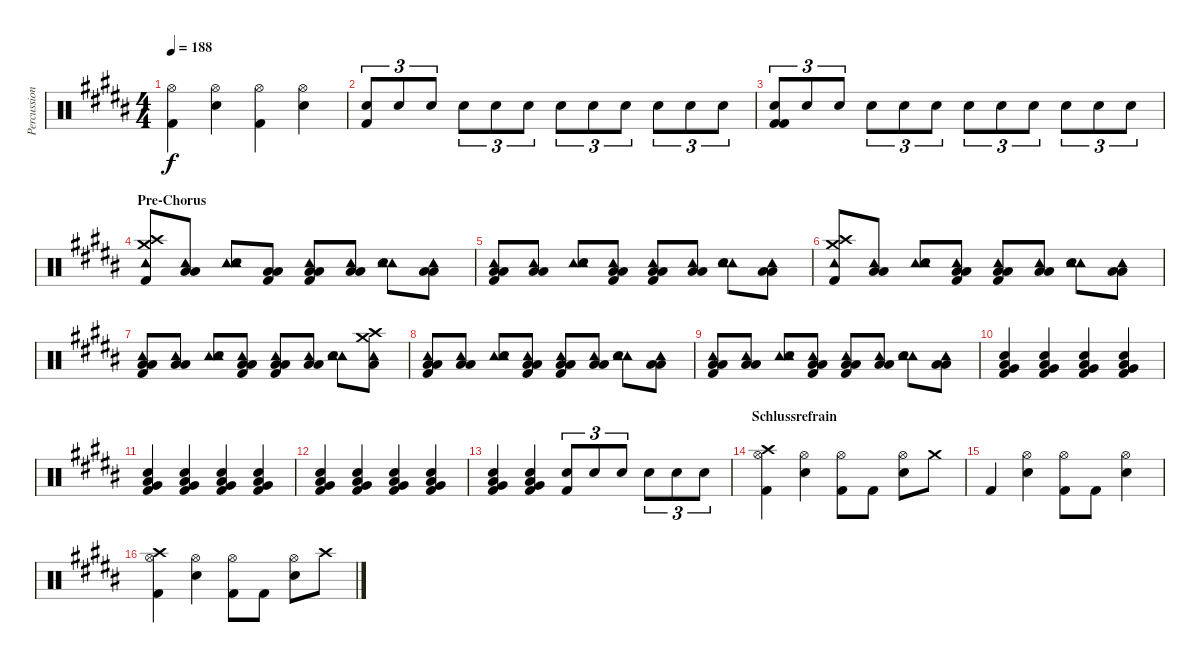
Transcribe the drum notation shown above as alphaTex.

\track ("Percussion" "Percussion") {instrument percussion}
\staff {score}
\articulation defaults
\ts (4 4)
\tempo 188
\clef neutral
\ks b
("Hi-Hat (open)" "Kick (hit) 2").4{dy f} ("Hi-Hat (open)" "Electric Snare (hit)").4 ("Hi-Hat (open)" "Kick (hit) 2").4 ("Hi-Hat (open)" "Electric Snare (hit)").4 |
("Electric Snare (hit)" "Kick (hit) 2").8{tu (3 2)} "Electric Snare (hit)".8{tu (3 2)} "Electric Snare (hit)".8{tu (3 2)} "Electric Snare (hit)".8{tu (3 2)} "Electric Snare (hit)".8{tu (3 2)} "Electric Snare (hit)".8{tu (3 2)} "Electric Snare (hit)".8{tu (3 2)} "Electric Snare (hit)".8{tu (3 2)} "Electric Snare (hit)".8{tu (3 2)} "Electric Snare (hit)".8{tu (3 2)} "Electric Snare (hit)".8{tu (3 2)} "Electric Snare (hit)".8{tu (3 2)} |
("Electric Snare (hit)" "Kick (hit) 2" "Kick (hit) 2").8{tu (3 2)} "Electric Snare (hit)".8{tu (3 2)} "Electric Snare (hit)".8{tu (3 2)} "Electric Snare (hit)".8{tu (3 2)} "Electric Snare (hit)".8{tu (3 2)} "Electric Snare (hit)".8{tu (3 2)} "Electric Snare (hit)".8{tu (3 2)} "Electric Snare (hit)".8{tu (3 2)} "Electric Snare (hit)".8{tu (3 2)} "Electric Snare (hit)".8{tu (3 2)} "Electric Snare (hit)".8{tu (3 2)} "Electric Snare (hit)".8{tu (3 2)} |
\section ("" "Pre-Chorus")
("Crash high (hit)" "Crash medium (hit)" "Tambourine (hit)" "Kick (hit) 2").8 ("Low Tom (hit)" "Low Floor Tom (hit)" "Tambourine (hit)").8 ("Tambourine (hit)" "Electric Snare (hit)" "Tambourine (hit)").8 ("Low Tom (hit)" "Low Floor Tom (hit)" "Kick (hit) 2").8 ("Low Tom (hit)" "Low Floor Tom (hit)" "Tambourine (hit)" "Kick (hit) 2").8 ("Low Tom (hit)" "Low Floor Tom (hit)" "Tambourine (hit)").8 ("Tambourine (hit)" "Electric Snare (hit)" "Tambourine (hit)").8 ("Low Tom (hit)" "Low Floor Tom (hit)" "Tambourine (hit)").8 |
("Low Tom (hit)" "Low Floor Tom (hit)" "Tambourine (hit)" "Kick (hit) 2").8 ("Low Tom (hit)" "Low Floor Tom (hit)" "Tambourine (hit)").8 ("Tambourine (hit)" "Electric Snare (hit)" "Tambourine (hit)").8 ("Low Tom (hit)" "Low Floor Tom (hit)" "Tambourine (hit)" "Kick (hit) 2").8 ("Low Tom (hit)" "Low Floor Tom (hit)" "Tambourine (hit)" "Kick (hit) 2").8 ("Low Tom (hit)" "Low Floor Tom (hit)" "Tambourine (hit)").8 ("Tambourine (hit)" "Electric Snare (hit)" "Tambourine (hit)").8 ("Low Tom (hit)" "Low Floor Tom (hit)" "Tambourine (hit)").8 |
("Crash high (hit)" "Crash medium (hit)" "Tambourine (hit)" "Kick (hit) 2").8 ("Low Tom (hit)" "Low Floor Tom (hit)" "Tambourine (hit)").8 ("Tambourine (hit)" "Electric Snare (hit)" "Tambourine (hit)").8 ("Low Tom (hit)" "Low Floor Tom (hit)" "Tambourine (hit)" "Kick (hit) 2").8 ("Low Tom (hit)" "Low Floor Tom (hit)" "Tambourine (hit)" "Kick (hit) 2").8 ("Low Tom (hit)" "Low Floor Tom (hit)" "Tambourine (hit)").8 ("Tambourine (hit)" "Electric Snare (hit)" "Tambourine (hit)").8 ("Low Tom (hit)" "Low Floor Tom (hit)" "Tambourine (hit)").8 |
("Low Tom (hit)" "Low Floor Tom (hit)" "Tambourine (hit)" "Kick (hit) 2").8 ("Low Tom (hit)" "Low Floor Tom (hit)" "Tambourine (hit)").8 ("Tambourine (hit)" "Electric Snare (hit)" "Tambourine (hit)").8 ("Low Tom (hit)" "Low Floor Tom (hit)" "Tambourine (hit)" "Kick (hit) 2").8 ("Low Tom (hit)" "Low Floor Tom (hit)" "Tambourine (hit)" "Kick (hit) 2").8 ("Low Tom (hit)" "Low Floor Tom (hit)" "Tambourine (hit)").8 ("Tambourine (hit)" "Electric Snare (hit)" "Tambourine (hit)").8 ("Crash high (hit)" "Crash medium (hit)" "Low Floor Tom (hit)" "Tambourine (hit)").8 |
("Low Tom (hit)" "Low Floor Tom (hit)" "Tambourine (hit)" "Kick (hit) 2").8 ("Low Tom (hit)" "Low Floor Tom (hit)" "Tambourine (hit)").8 ("Tambourine (hit)" "Electric Snare (hit)" "Tambourine (hit)").8 ("Low Tom (hit)" "Low Floor Tom (hit)" "Tambourine (hit)" "Kick (hit) 2").8 ("Low Tom (hit)" "Low Floor Tom (hit)" "Tambourine (hit)" "Kick (hit) 2").8 ("Low Tom (hit)" "Low Floor Tom (hit)" "Tambourine (hit)").8 ("Tambourine (hit)" "Electric Snare (hit)" "Tambourine (hit)").8 ("Low Tom (hit)" "Low Floor Tom (hit)" "Tambourine (hit)").8 |
("Low Tom (hit)" "Low Floor Tom (hit)" "Tambourine (hit)" "Kick (hit) 2").8 ("Low Tom (hit)" "Low Floor Tom (hit)" "Tambourine (hit)").8 ("Tambourine (hit)" "Electric Snare (hit)" "Tambourine (hit)").8 ("Low Tom (hit)" "Low Floor Tom (hit)" "Tambourine (hit)" "Kick (hit) 2").8 ("Low Tom (hit)" "Low Floor Tom (hit)" "Tambourine (hit)" "Kick (hit) 2").8 ("Low Tom (hit)" "Low Floor Tom (hit)" "Tambourine (hit)").8 ("Tambourine (hit)" "Electric Snare (hit)" "Tambourine (hit)").8 ("Low Tom (hit)" "Low Floor Tom (hit)" "Tambourine (hit)").8 |
("Low Tom (hit)" "Very Low Tom (hit)" "Electric Snare (hit)" "Kick (hit) 2").4 ("Low Tom (hit)" "Very Low Tom (hit)" "Electric Snare (hit)" "Kick (hit) 2").4 ("Low Tom (hit)" "Very Low Tom (hit)" "Electric Snare (hit)" "Kick (hit) 2").4 ("Low Tom (hit)" "Very Low Tom (hit)" "Electric Snare (hit)" "Kick (hit) 2").4 |
("Low Tom (hit)" "Very Low Tom (hit)" "Electric Snare (hit)" "Kick (hit) 2").4 ("Low Tom (hit)" "Very Low Tom (hit)" "Electric Snare (hit)" "Kick (hit) 2").4 ("Low Tom (hit)" "Very Low Tom (hit)" "Electric Snare (hit)" "Kick (hit) 2").4 ("Low Tom (hit)" "Very Low Tom (hit)" "Electric Snare (hit)" "Kick (hit) 2").4 |
("Low Tom (hit)" "Very Low Tom (hit)" "Electric Snare (hit)" "Kick (hit) 2").4 ("Low Tom (hit)" "Very Low Tom (hit)" "Electric Snare (hit)" "Kick (hit) 2").4 ("Low Tom (hit)" "Very Low Tom (hit)" "Electric Snare (hit)" "Kick (hit) 2").4 ("Low Tom (hit)" "Very Low Tom (hit)" "Electric Snare (hit)" "Kick (hit) 2").4 |
("Low Tom (hit)" "Very Low Tom (hit)" "Electric Snare (hit)" "Kick (hit) 2").4 ("Low Tom (hit)" "Very Low Tom (hit)" "Electric Snare (hit)" "Kick (hit) 2").4 ("Electric Snare (hit)" "Kick (hit) 2").8{tu (3 2)} "Electric Snare (hit)".8{tu (3 2)} "Electric Snare (hit)".8{tu (3 2)} "Electric Snare (hit)".8{tu (3 2)} "Electric Snare (hit)".8{tu (3 2)} "Electric Snare (hit)".8{tu (3 2)} |
\section ("" "Schlussrefrain")
("Crash high (hit)" "Hi-Hat (open)" "Kick (hit) 2").4 ("Hi-Hat (open)" "Electric Snare (hit)").4 ("Hi-Hat (open)" "Kick (hit) 2").8 "Kick (hit) 2".8 ("Hi-Hat (open)" "Electric Snare (hit)").8 "Crash medium (hit)".8 |
"Kick (hit) 2".4 ("Hi-Hat (open)" "Electric Snare (hit)").4 ("Hi-Hat (open)" "Kick (hit) 2").8 "Kick (hit) 2".8 ("Hi-Hat (open)" "Electric Snare (hit)").4 |
("Crash high (hit)" "Hi-Hat (open)" "Kick (hit) 2").4 ("Hi-Hat (open)" "Electric Snare (hit)").4 ("Hi-Hat (open)" "Kick (hit) 2").8 "Kick (hit) 2".8 ("Hi-Hat (open)" "Electric Snare (hit)").8 "Crash high (hit)".8
